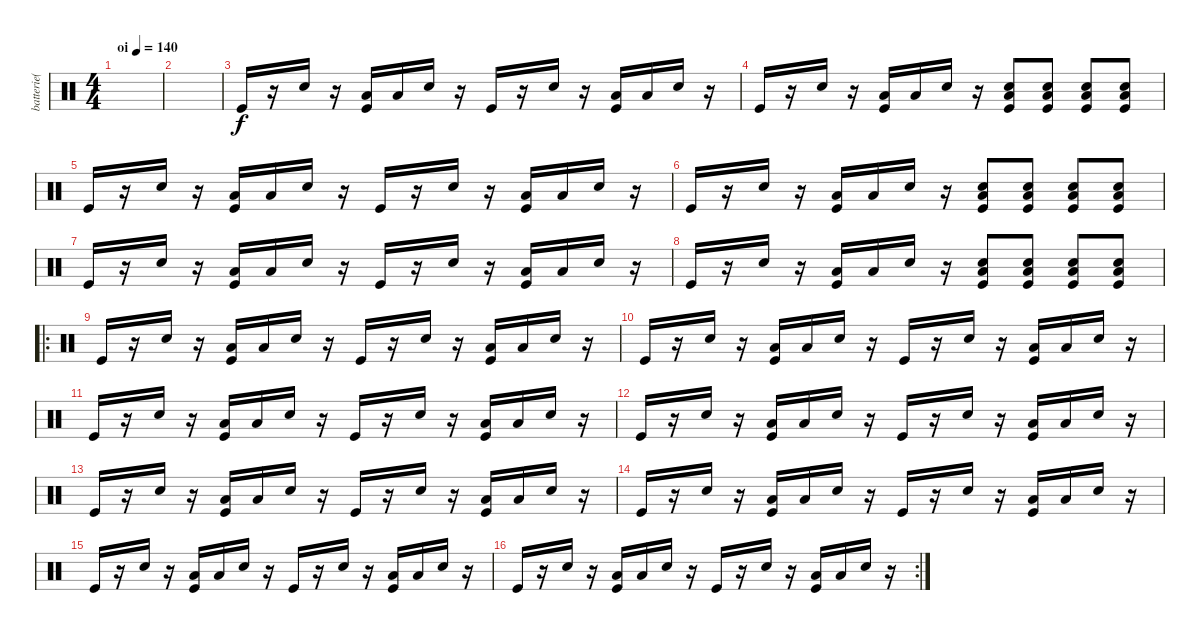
\track ("batterie( Yureesh )" "batterie( ") {instrument percussion}
\staff {score}
\articulation defaults
\ts (4 4)
\tempo (140 "oi")
\clef neutral
\ks c
|
|
"Kick (hit)".16 r.16 "Snare (hit) 2".16 r.16 ("Low Floor Tom (hit)" "Kick (hit)").16 "Low Floor Tom (hit)".16 "Snare (hit) 2".16 r.16 "Kick (hit)".16 r.16 "Snare (hit) 2".16 r.16 ("Low Floor Tom (hit)" "Kick (hit)").16 "Low Floor Tom (hit)".16 "Snare (hit) 2".16 r.16 |
"Kick (hit)".16 r.16 "Snare (hit) 2".16 r.16 ("Low Floor Tom (hit)" "Kick (hit)").16 "Low Floor Tom (hit)".16 "Snare (hit) 2".16 r.16 ("Low Floor Tom (hit)" "Snare (hit) 2" "Kick (hit)").8 ("Low Floor Tom (hit)" "Snare (hit) 2" "Kick (hit)").8 ("Low Floor Tom (hit)" "Snare (hit) 2" "Kick (hit)").8 ("Low Floor Tom (hit)" "Snare (hit) 2" "Kick (hit)").8 |
"Kick (hit)".16 r.16 "Snare (hit) 2".16 r.16 ("Low Floor Tom (hit)" "Kick (hit)").16 "Low Floor Tom (hit)".16 "Snare (hit) 2".16 r.16 "Kick (hit)".16 r.16 "Snare (hit) 2".16 r.16 ("Low Floor Tom (hit)" "Kick (hit)").16 "Low Floor Tom (hit)".16 "Snare (hit) 2".16 r.16 |
"Kick (hit)".16 r.16 "Snare (hit) 2".16 r.16 ("Low Floor Tom (hit)" "Kick (hit)").16 "Low Floor Tom (hit)".16 "Snare (hit) 2".16 r.16 ("Low Floor Tom (hit)" "Snare (hit) 2" "Kick (hit)").8 ("Low Floor Tom (hit)" "Snare (hit) 2" "Kick (hit)").8 ("Low Floor Tom (hit)" "Snare (hit) 2" "Kick (hit)").8 ("Low Floor Tom (hit)" "Snare (hit) 2" "Kick (hit)").8 |
"Kick (hit)".16 r.16 "Snare (hit) 2".16 r.16 ("Low Floor Tom (hit)" "Kick (hit)").16 "Low Floor Tom (hit)".16 "Snare (hit) 2".16 r.16 "Kick (hit)".16 r.16 "Snare (hit) 2".16 r.16 ("Low Floor Tom (hit)" "Kick (hit)").16 "Low Floor Tom (hit)".16 "Snare (hit) 2".16 r.16 |
"Kick (hit)".16 r.16 "Snare (hit) 2".16 r.16 ("Low Floor Tom (hit)" "Kick (hit)").16 "Low Floor Tom (hit)".16 "Snare (hit) 2".16 r.16 ("Low Floor Tom (hit)" "Snare (hit) 2" "Kick (hit)").8 ("Low Floor Tom (hit)" "Snare (hit) 2" "Kick (hit)").8 ("Low Floor Tom (hit)" "Snare (hit) 2" "Kick (hit)").8 ("Low Floor Tom (hit)" "Snare (hit) 2" "Kick (hit)").8 |
\ro "Kick (hit)".16
r.16 "Snare (hit) 2".16 r.16 ("Low Floor Tom (hit)" "Kick (hit)").16 "Low Floor Tom (hit)".16 "Snare (hit) 2".16 r.16 "Kick (hit)".16 r.16 "Snare (hit) 2".16 r.16 ("Low Floor Tom (hit)" "Kick (hit)").16 "Low Floor Tom (hit)".16 "Snare (hit) 2".16 r.16 |
"Kick (hit)".16 r.16 "Snare (hit) 2".16 r.16 ("Low Floor Tom (hit)" "Kick (hit)").16 "Low Floor Tom (hit)".16 "Snare (hit) 2".16 r.16 "Kick (hit)".16 r.16 "Snare (hit) 2".16 r.16 ("Low Floor Tom (hit)" "Kick (hit)").16 "Low Floor Tom (hit)".16 "Snare (hit) 2".16 r.16 |
"Kick (hit)".16 r.16 "Snare (hit) 2".16 r.16 ("Low Floor Tom (hit)" "Kick (hit)").16 "Low Floor Tom (hit)".16 "Snare (hit) 2".16 r.16 "Kick (hit)".16 r.16 "Snare (hit) 2".16 r.16 ("Low Floor Tom (hit)" "Kick (hit)").16 "Low Floor Tom (hit)".16 "Snare (hit) 2".16 r.16 |
"Kick (hit)".16 r.16 "Snare (hit) 2".16 r.16 ("Low Floor Tom (hit)" "Kick (hit)").16 "Low Floor Tom (hit)".16 "Snare (hit) 2".16 r.16 "Kick (hit)".16 r.16 "Snare (hit) 2".16 r.16 ("Low Floor Tom (hit)" "Kick (hit)").16 "Low Floor Tom (hit)".16 "Snare (hit) 2".16 r.16 |
"Kick (hit)".16 r.16 "Snare (hit) 2".16 r.16 ("Low Floor Tom (hit)" "Kick (hit)").16 "Low Floor Tom (hit)".16 "Snare (hit) 2".16 r.16 "Kick (hit)".16 r.16 "Snare (hit) 2".16 r.16 ("Low Floor Tom (hit)" "Kick (hit)").16 "Low Floor Tom (hit)".16 "Snare (hit) 2".16 r.16 |
"Kick (hit)".16 r.16 "Snare (hit) 2".16 r.16 ("Low Floor Tom (hit)" "Kick (hit)").16 "Low Floor Tom (hit)".16 "Snare (hit) 2".16 r.16 "Kick (hit)".16 r.16 "Snare (hit) 2".16 r.16 ("Low Floor Tom (hit)" "Kick (hit)").16 "Low Floor Tom (hit)".16 "Snare (hit) 2".16 r.16 |
"Kick (hit)".16 r.16 "Snare (hit) 2".16 r.16 ("Low Floor Tom (hit)" "Kick (hit)").16 "Low Floor Tom (hit)".16 "Snare (hit) 2".16 r.16 "Kick (hit)".16 r.16 "Snare (hit) 2".16 r.16 ("Low Floor Tom (hit)" "Kick (hit)").16 "Low Floor Tom (hit)".16 "Snare (hit) 2".16 r.16 |
\rc 2 "Kick (hit)".16
r.16 "Snare (hit) 2".16 r.16 ("Low Floor Tom (hit)" "Kick (hit)").16 "Low Floor Tom (hit)".16 "Snare (hit) 2".16 r.16 "Kick (hit)".16 r.16 "Snare (hit) 2".16 r.16 ("Low Floor Tom (hit)" "Kick (hit)").16 "Low Floor Tom (hit)".16 "Snare (hit) 2".16 r.16
